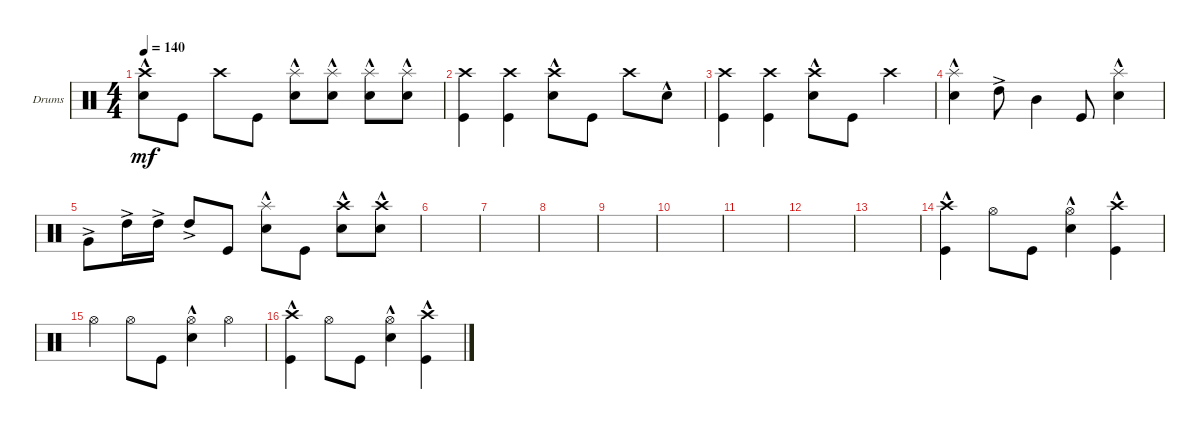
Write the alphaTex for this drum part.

\bracketExtendMode groupsimilarinstruments
\firstSystemTrackNameOrientation horizontal
\otherSystemsTrackNameOrientation horizontal
\track ("Drumkit" "Drums") {instrument percussion}
\staff {score}
\articulation defaults
\ts (4 4)
\tempo 140
\clef neutral
\ks c
("Crash high (hit)" "Snare (hit) 2"{hac}).8{dy mf} "Kick (hit)".8 "Crash high (hit)".8 "Kick (hit)".8 ("Snare (hit) 2"{hac} "Splash (hit)").8 ("Snare (hit) 2"{hac} "Splash (hit)").8 ("Snare (hit) 2"{hac} "Splash (hit)").8 ("Snare (hit) 2"{hac} "Splash (hit)").8 |
("Crash high (hit)" "Kick (hit)").4 ("Crash high (hit)" "Kick (hit)").4 ("Crash high (hit)" "Snare (hit) 2"{hac}).8 "Kick (hit)".8 "Crash high (hit)".8 "Snare (hit) 2"{hac}.8 |
("Crash high (hit)" "Kick (hit)").4 ("Crash high (hit)" "Kick (hit)").4 ("Crash high (hit)" "Snare (hit) 2"{hac}).8 "Kick (hit)".8 "Crash high (hit)".4 |
("Snare (hit) 2"{hac} "Splash (hit)").4 "High Tom (hit)"{ac}.8 "Mid Tom (hit)".4 "Kick (hit)".8 ("Snare (hit) 2"{hac} "Splash (hit)").4 |
"Very Low Tom (hit)"{ac}.8 "High Tom (hit)"{ac}.16 "High Tom (hit)"{ac}.16 "High Tom (hit)"{ac}.8 "Kick (hit)".8 ("Snare (hit) 2"{hac} "Splash (hit)").8 "Kick (hit)".8 ("Snare (hit) 2"{hac} "Crash high (hit)").8 ("Snare (hit) 2"{hac} "Crash high (hit)").8 |
|
|
|
|
|
|
|
|
("Kick (hit)" "Crash high (hit)"{hac}).4 "Hi-Hat (open)".8 "Kick (hit)".8 ("Hi-Hat (open)" "Snare (hit) 2"{hac}).4 ("Kick (hit)" "Crash high (hit)"{hac}).4 |
"Hi-Hat (open)".4 "Hi-Hat (open)".8 "Kick (hit)".8 ("Hi-Hat (open)" "Snare (hit) 2"{hac}).4 "Hi-Hat (open)".4 |
("Kick (hit)" "Crash high (hit)"{hac}).4 "Hi-Hat (open)".8 "Kick (hit)".8 ("Hi-Hat (open)" "Snare (hit) 2"{hac}).4 ("Kick (hit)" "Crash high (hit)"{hac}).4
